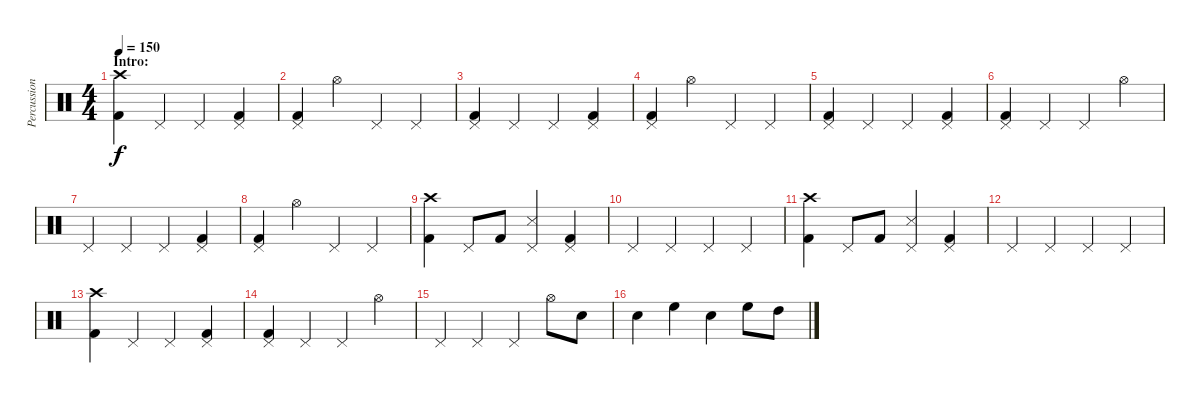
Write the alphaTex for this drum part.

\track ("Percussion" "Percussion") {instrument percussion}
\staff {score}
\articulation defaults
\ts (4 4)
\section ("" "Intro:")
\tempo 150
\clef neutral
\ks c
("Crash high (hit)" "Kick (hit) 2").4{dy f} "Pedal Hi-Hat (hit)".4 "Pedal Hi-Hat (hit)".4 ("Pedal Hi-Hat (hit)" "Kick (hit) 2").4 |
("Pedal Hi-Hat (hit)" "Kick (hit) 2").4 "Hi-Hat (open)".4 "Pedal Hi-Hat (hit)".4 "Pedal Hi-Hat (hit)".4 |
("Pedal Hi-Hat (hit)" "Kick (hit) 2").4 "Pedal Hi-Hat (hit)".4 "Pedal Hi-Hat (hit)".4 ("Pedal Hi-Hat (hit)" "Kick (hit) 2").4 |
("Pedal Hi-Hat (hit)" "Kick (hit) 2").4 "Hi-Hat (open)".4 "Pedal Hi-Hat (hit)".4 "Pedal Hi-Hat (hit)".4 |
("Pedal Hi-Hat (hit)" "Kick (hit) 2").4 "Pedal Hi-Hat (hit)".4 "Pedal Hi-Hat (hit)".4 ("Pedal Hi-Hat (hit)" "Kick (hit) 2").4 |
("Pedal Hi-Hat (hit)" "Kick (hit) 2").4 "Pedal Hi-Hat (hit)".4 "Pedal Hi-Hat (hit)".4 "Hi-Hat (open)".4 |
"Pedal Hi-Hat (hit)".4 "Pedal Hi-Hat (hit)".4 "Pedal Hi-Hat (hit)".4 ("Pedal Hi-Hat (hit)" "Kick (hit) 2").4 |
("Pedal Hi-Hat (hit)" "Kick (hit) 2").4 "Hi-Hat (open)".4 "Pedal Hi-Hat (hit)".4 "Pedal Hi-Hat (hit)".4 |
("Crash high (hit)" "Kick (hit) 2").4 "Pedal Hi-Hat (hit)".8 "Kick (hit) 2".8 ("Pedal Hi-Hat (hit)" "Snare (side stick) 3").4 ("Pedal Hi-Hat (hit)" "Kick (hit) 2").4 |
"Pedal Hi-Hat (hit)".4 "Pedal Hi-Hat (hit)".4 "Pedal Hi-Hat (hit)".4 "Pedal Hi-Hat (hit)".4 |
("Crash high (hit)" "Kick (hit) 2").4 "Pedal Hi-Hat (hit)".8 "Kick (hit) 2".8 ("Pedal Hi-Hat (hit)" "Snare (side stick) 3").4 ("Pedal Hi-Hat (hit)" "Kick (hit) 2").4 |
"Pedal Hi-Hat (hit)".4 "Pedal Hi-Hat (hit)".4 "Pedal Hi-Hat (hit)".4 "Pedal Hi-Hat (hit)".4 |
("Crash high (hit)" "Kick (hit) 2").4 "Pedal Hi-Hat (hit)".4 "Pedal Hi-Hat (hit)".4 ("Pedal Hi-Hat (hit)" "Kick (hit) 2").4 |
("Pedal Hi-Hat (hit)" "Kick (hit) 2").4 "Pedal Hi-Hat (hit)".4 "Pedal Hi-Hat (hit)".4 "Hi-Hat (open)".4 |
"Pedal Hi-Hat (hit)".4 "Pedal Hi-Hat (hit)".4 "Pedal Hi-Hat (hit)".4 "Hi-Hat (open)".8 "Electric Snare (hit)".8 |
"Electric Snare (hit)".4 "High Floor Tom (hit)".4 "Electric Snare (hit)".4 "High Floor Tom (hit)".8 "High Tom (hit)".8
